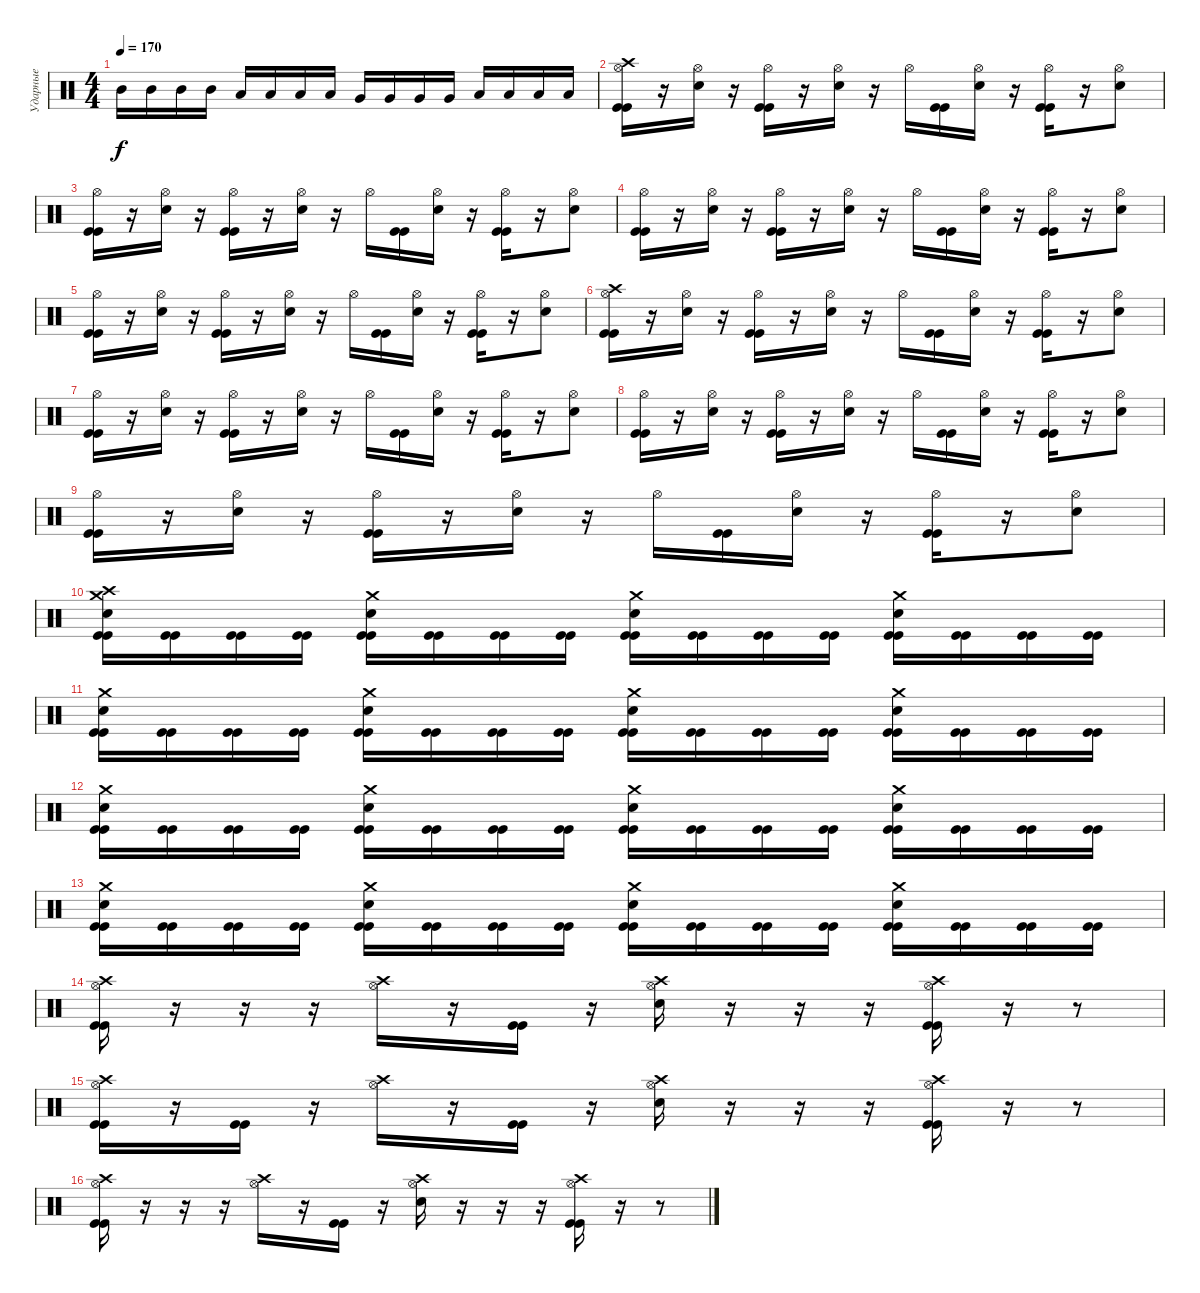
\track ("Ударные" "Ударные") {instrument percussion}
\staff {score}
\articulation defaults
\ts (4 4)
\tempo 170
\clef neutral
\ks c "Mid Tom (hit)".16{dy f} "Mid Tom (hit)".16 "Mid Tom (hit)".16 "Mid Tom (hit)".16 "Low Tom (hit)".16 "Low Tom (hit)".16 "Low Tom (hit)".16 "Low Tom (hit)".16 "Very Low Tom (hit)".16 "Very Low Tom (hit)".16 "Very Low Tom (hit)".16 "Very Low Tom (hit)".16 "Low Floor Tom (hit)".16 "Low Floor Tom (hit)".16 "Low Floor Tom (hit)".16 "Low Floor Tom (hit)".16
|
("Crash high (hit)" "Hi-Hat (open)" "Kick (hit)" "Kick (hit)").16 r.16 ("Hi-Hat (open)" "Electric Snare (hit)").16 r.16 ("Hi-Hat (open)" "Kick (hit)" "Kick (hit)").16 r.16 ("Hi-Hat (open)" "Electric Snare (hit)").16 r.16 "Hi-Hat (open)".16 ("Kick (hit)" "Kick (hit)").16 ("Hi-Hat (open)" "Electric Snare (hit)").16 r.16 ("Hi-Hat (open)" "Kick (hit)" "Kick (hit)").16 r.16 ("Hi-Hat (open)" "Electric Snare (hit)").8 |
("Hi-Hat (open)" "Kick (hit)" "Kick (hit)").16 r.16 ("Hi-Hat (open)" "Electric Snare (hit)").16 r.16 ("Hi-Hat (open)" "Kick (hit)" "Kick (hit)").16 r.16 ("Hi-Hat (open)" "Electric Snare (hit)").16 r.16 "Hi-Hat (open)".16 ("Kick (hit)" "Kick (hit)").16 ("Hi-Hat (open)" "Electric Snare (hit)").16 r.16 ("Hi-Hat (open)" "Kick (hit)" "Kick (hit)").16 r.16 ("Hi-Hat (open)" "Electric Snare (hit)").8 |
("Hi-Hat (open)" "Kick (hit)" "Kick (hit)").16 r.16 ("Hi-Hat (open)" "Electric Snare (hit)").16 r.16 ("Hi-Hat (open)" "Kick (hit)" "Kick (hit)").16 r.16 ("Hi-Hat (open)" "Electric Snare (hit)").16 r.16 "Hi-Hat (open)".16 ("Kick (hit)" "Kick (hit)").16 ("Hi-Hat (open)" "Electric Snare (hit)").16 r.16 ("Hi-Hat (open)" "Kick (hit)" "Kick (hit)").16 r.16 ("Hi-Hat (open)" "Electric Snare (hit)").8 |
("Hi-Hat (open)" "Kick (hit)" "Kick (hit)").16 r.16 ("Hi-Hat (open)" "Electric Snare (hit)").16 r.16 ("Hi-Hat (open)" "Kick (hit)" "Kick (hit)").16 r.16 ("Hi-Hat (open)" "Electric Snare (hit)").16 r.16 "Hi-Hat (open)".16 ("Kick (hit)" "Kick (hit)").16 ("Hi-Hat (open)" "Electric Snare (hit)").16 r.16 ("Hi-Hat (open)" "Kick (hit)" "Kick (hit)").16 r.16 ("Hi-Hat (open)" "Electric Snare (hit)").8 |
("Crash high (hit)" "Hi-Hat (open)" "Kick (hit)" "Kick (hit)").16 r.16 ("Hi-Hat (open)" "Electric Snare (hit)").16 r.16 ("Hi-Hat (open)" "Kick (hit)" "Kick (hit)").16 r.16 ("Hi-Hat (open)" "Electric Snare (hit)").16 r.16 "Hi-Hat (open)".16 ("Kick (hit)" "Kick (hit)").16 ("Hi-Hat (open)" "Electric Snare (hit)").16 r.16 ("Hi-Hat (open)" "Kick (hit)" "Kick (hit)").16 r.16 ("Hi-Hat (open)" "Electric Snare (hit)").8 |
("Hi-Hat (open)" "Kick (hit)" "Kick (hit)").16 r.16 ("Hi-Hat (open)" "Electric Snare (hit)").16 r.16 ("Hi-Hat (open)" "Kick (hit)" "Kick (hit)").16 r.16 ("Hi-Hat (open)" "Electric Snare (hit)").16 r.16 "Hi-Hat (open)".16 ("Kick (hit)" "Kick (hit)").16 ("Hi-Hat (open)" "Electric Snare (hit)").16 r.16 ("Hi-Hat (open)" "Kick (hit)" "Kick (hit)").16 r.16 ("Hi-Hat (open)" "Electric Snare (hit)").8 |
("Hi-Hat (open)" "Kick (hit)" "Kick (hit)").16 r.16 ("Hi-Hat (open)" "Electric Snare (hit)").16 r.16 ("Hi-Hat (open)" "Kick (hit)" "Kick (hit)").16 r.16 ("Hi-Hat (open)" "Electric Snare (hit)").16 r.16 "Hi-Hat (open)".16 ("Kick (hit)" "Kick (hit)").16 ("Hi-Hat (open)" "Electric Snare (hit)").16 r.16 ("Hi-Hat (open)" "Kick (hit)" "Kick (hit)").16 r.16 ("Hi-Hat (open)" "Electric Snare (hit)").8 |
("Hi-Hat (open)" "Kick (hit)" "Kick (hit)").16 r.16 ("Hi-Hat (open)" "Electric Snare (hit)").16 r.16 ("Hi-Hat (open)" "Kick (hit)" "Kick (hit)").16 r.16 ("Hi-Hat (open)" "Electric Snare (hit)").16 r.16 "Hi-Hat (open)".16 ("Kick (hit)" "Kick (hit)").16 ("Hi-Hat (open)" "Electric Snare (hit)").16 r.16 ("Hi-Hat (open)" "Kick (hit)" "Kick (hit)").16 r.16 ("Hi-Hat (open)" "Electric Snare (hit)").8 |
("Crash high (hit)" "Crash medium (hit)" "Electric Snare (hit)" "Kick (hit)" "Kick (hit)").16 ("Kick (hit)" "Kick (hit)").16 ("Kick (hit)" "Kick (hit)").16 ("Kick (hit)" "Kick (hit)").16 ("Crash medium (hit)" "Electric Snare (hit)" "Kick (hit)" "Kick (hit)").16 ("Kick (hit)" "Kick (hit)").16 ("Kick (hit)" "Kick (hit)").16 ("Kick (hit)" "Kick (hit)").16 ("Crash medium (hit)" "Electric Snare (hit)" "Kick (hit)" "Kick (hit)").16 ("Kick (hit)" "Kick (hit)").16 ("Kick (hit)" "Kick (hit)").16 ("Kick (hit)" "Kick (hit)").16 ("Crash medium (hit)" "Electric Snare (hit)" "Kick (hit)" "Kick (hit)").16 ("Kick (hit)" "Kick (hit)").16 ("Kick (hit)" "Kick (hit)").16 ("Kick (hit)" "Kick (hit)").16 |
("Crash medium (hit)" "Electric Snare (hit)" "Kick (hit)" "Kick (hit)").16 ("Kick (hit)" "Kick (hit)").16 ("Kick (hit)" "Kick (hit)").16 ("Kick (hit)" "Kick (hit)").16 ("Crash medium (hit)" "Electric Snare (hit)" "Kick (hit)" "Kick (hit)").16 ("Kick (hit)" "Kick (hit)").16 ("Kick (hit)" "Kick (hit)").16 ("Kick (hit)" "Kick (hit)").16 ("Crash medium (hit)" "Electric Snare (hit)" "Kick (hit)" "Kick (hit)").16 ("Kick (hit)" "Kick (hit)").16 ("Kick (hit)" "Kick (hit)").16 ("Kick (hit)" "Kick (hit)").16 ("Crash medium (hit)" "Electric Snare (hit)" "Kick (hit)" "Kick (hit)").16 ("Kick (hit)" "Kick (hit)").16 ("Kick (hit)" "Kick (hit)").16 ("Kick (hit)" "Kick (hit)").16 |
("Crash medium (hit)" "Electric Snare (hit)" "Kick (hit)" "Kick (hit)").16 ("Kick (hit)" "Kick (hit)").16 ("Kick (hit)" "Kick (hit)").16 ("Kick (hit)" "Kick (hit)").16 ("Crash medium (hit)" "Electric Snare (hit)" "Kick (hit)" "Kick (hit)").16 ("Kick (hit)" "Kick (hit)").16 ("Kick (hit)" "Kick (hit)").16 ("Kick (hit)" "Kick (hit)").16 ("Crash medium (hit)" "Electric Snare (hit)" "Kick (hit)" "Kick (hit)").16 ("Kick (hit)" "Kick (hit)").16 ("Kick (hit)" "Kick (hit)").16 ("Kick (hit)" "Kick (hit)").16 ("Crash medium (hit)" "Electric Snare (hit)" "Kick (hit)" "Kick (hit)").16 ("Kick (hit)" "Kick (hit)").16 ("Kick (hit)" "Kick (hit)").16 ("Kick (hit)" "Kick (hit)").16 |
("Crash medium (hit)" "Electric Snare (hit)" "Kick (hit)" "Kick (hit)").16 ("Kick (hit)" "Kick (hit)").16 ("Kick (hit)" "Kick (hit)").16 ("Kick (hit)" "Kick (hit)").16 ("Crash medium (hit)" "Electric Snare (hit)" "Kick (hit)" "Kick (hit)").16 ("Kick (hit)" "Kick (hit)").16 ("Kick (hit)" "Kick (hit)").16 ("Kick (hit)" "Kick (hit)").16 ("Crash medium (hit)" "Electric Snare (hit)" "Kick (hit)" "Kick (hit)").16 ("Kick (hit)" "Kick (hit)").16 ("Kick (hit)" "Kick (hit)").16 ("Kick (hit)" "Kick (hit)").16 ("Crash medium (hit)" "Electric Snare (hit)" "Kick (hit)" "Kick (hit)").16 ("Kick (hit)" "Kick (hit)").16 ("Kick (hit)" "Kick (hit)").16 ("Kick (hit)" "Kick (hit)").16 |
("Crash high (hit)" "Hi-Hat (open)" "Kick (hit)" "Kick (hit)").16 r.16 r.16 r.16 ("Crash high (hit)" "Hi-Hat (open)").16 r.16 ("Kick (hit)" "Kick (hit)").16 r.16 ("Crash high (hit)" "Hi-Hat (open)" "Electric Snare (hit)").16 r.16 r.16 r.16 ("Crash high (hit)" "Hi-Hat (open)" "Kick (hit)" "Kick (hit)").16 r.16 r.8 |
("Crash high (hit)" "Hi-Hat (open)" "Kick (hit)" "Kick (hit)").16 r.16 ("Kick (hit)" "Kick (hit)").16 r.16 ("Crash high (hit)" "Hi-Hat (open)").16 r.16 ("Kick (hit)" "Kick (hit)").16 r.16 ("Crash high (hit)" "Hi-Hat (open)" "Electric Snare (hit)").16 r.16 r.16 r.16 ("Crash high (hit)" "Hi-Hat (open)" "Kick (hit)" "Kick (hit)").16 r.16 r.8 |
("Crash high (hit)" "Hi-Hat (open)" "Kick (hit)" "Kick (hit)").16 r.16 r.16 r.16 ("Crash high (hit)" "Hi-Hat (open)").16 r.16 ("Kick (hit)" "Kick (hit)").16 r.16 ("Crash high (hit)" "Hi-Hat (open)" "Electric Snare (hit)").16 r.16 r.16 r.16 ("Crash high (hit)" "Hi-Hat (open)" "Kick (hit)" "Kick (hit)").16 r.16 r.8
